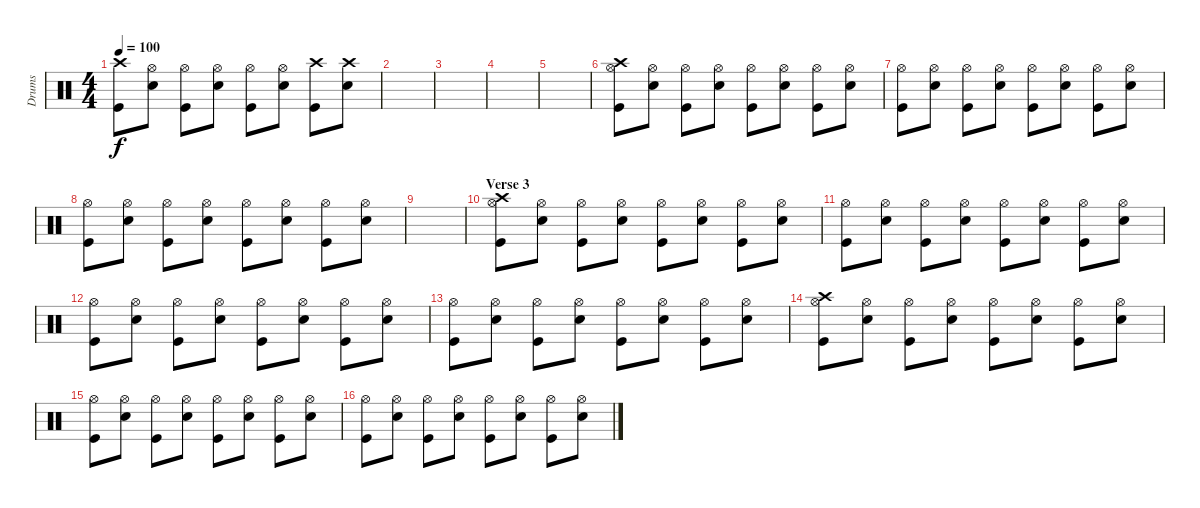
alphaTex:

\track ("Drums" "Drums") {instrument percussion}
\staff {score}
\articulation defaults
\ts (4 4)
\tempo 100
\clef neutral
\ks c
("Crash high (hit)" "Kick (hit)").8{dy f} ("Hi-Hat (open)" "Snare (hit) 2").8 ("Hi-Hat (open)" "Kick (hit)").8 ("Hi-Hat (open)" "Snare (hit) 2").8 ("Hi-Hat (open)" "Kick (hit)").8 ("Hi-Hat (open)" "Snare (hit) 2").8 ("Crash high (hit)" "Kick (hit)").8 ("Crash high (hit)" "Snare (hit) 2").8 |
|
|
|
|
("Hi-Hat (open)" "Crash high (hit)" "Kick (hit)").8 ("Hi-Hat (open)" "Snare (hit) 2").8 ("Hi-Hat (open)" "Kick (hit)").8 ("Hi-Hat (open)" "Snare (hit) 2").8 ("Hi-Hat (open)" "Kick (hit)").8 ("Hi-Hat (open)" "Snare (hit) 2").8 ("Hi-Hat (open)" "Kick (hit)").8 ("Hi-Hat (open)" "Snare (hit) 2").8 |
("Hi-Hat (open)" "Kick (hit)").8 ("Hi-Hat (open)" "Snare (hit) 2").8 ("Hi-Hat (open)" "Kick (hit)").8 ("Hi-Hat (open)" "Snare (hit) 2").8 ("Hi-Hat (open)" "Kick (hit)").8 ("Hi-Hat (open)" "Snare (hit) 2").8 ("Hi-Hat (open)" "Kick (hit)").8 ("Hi-Hat (open)" "Snare (hit) 2").8 |
("Hi-Hat (open)" "Kick (hit)").8 ("Hi-Hat (open)" "Snare (hit) 2").8 ("Hi-Hat (open)" "Kick (hit)").8 ("Hi-Hat (open)" "Snare (hit) 2").8 ("Hi-Hat (open)" "Kick (hit)").8 ("Hi-Hat (open)" "Snare (hit) 2").8 ("Hi-Hat (open)" "Kick (hit)").8 ("Hi-Hat (open)" "Snare (hit) 2").8 |
|
\section ("" "Verse 3")
("Hi-Hat (open)" "Crash high (hit)" "Kick (hit)").8 ("Hi-Hat (open)" "Snare (hit) 2").8 ("Hi-Hat (open)" "Kick (hit)").8 ("Hi-Hat (open)" "Snare (hit) 2").8 ("Hi-Hat (open)" "Kick (hit)").8 ("Hi-Hat (open)" "Snare (hit) 2").8 ("Hi-Hat (open)" "Kick (hit)").8 ("Hi-Hat (open)" "Snare (hit) 2").8 |
("Hi-Hat (open)" "Kick (hit)").8 ("Hi-Hat (open)" "Snare (hit) 2").8 ("Hi-Hat (open)" "Kick (hit)").8 ("Hi-Hat (open)" "Snare (hit) 2").8 ("Hi-Hat (open)" "Kick (hit)").8 ("Hi-Hat (open)" "Snare (hit) 2").8 ("Hi-Hat (open)" "Kick (hit)").8 ("Hi-Hat (open)" "Snare (hit) 2").8 |
("Hi-Hat (open)" "Kick (hit)").8 ("Hi-Hat (open)" "Snare (hit) 2").8 ("Hi-Hat (open)" "Kick (hit)").8 ("Hi-Hat (open)" "Snare (hit) 2").8 ("Hi-Hat (open)" "Kick (hit)").8 ("Hi-Hat (open)" "Snare (hit) 2").8 ("Hi-Hat (open)" "Kick (hit)").8 ("Hi-Hat (open)" "Snare (hit) 2").8 |
("Hi-Hat (open)" "Kick (hit)").8 ("Hi-Hat (open)" "Snare (hit) 2").8 ("Hi-Hat (open)" "Kick (hit)").8 ("Hi-Hat (open)" "Snare (hit) 2").8 ("Hi-Hat (open)" "Kick (hit)").8 ("Hi-Hat (open)" "Snare (hit) 2").8 ("Hi-Hat (open)" "Kick (hit)").8 ("Hi-Hat (open)" "Snare (hit) 2").8 |
("Hi-Hat (open)" "Crash high (hit)" "Kick (hit)").8 ("Hi-Hat (open)" "Snare (hit) 2").8 ("Hi-Hat (open)" "Kick (hit)").8 ("Hi-Hat (open)" "Snare (hit) 2").8 ("Hi-Hat (open)" "Kick (hit)").8 ("Hi-Hat (open)" "Snare (hit) 2").8 ("Hi-Hat (open)" "Kick (hit)").8 ("Hi-Hat (open)" "Snare (hit) 2").8 |
("Hi-Hat (open)" "Kick (hit)").8 ("Hi-Hat (open)" "Snare (hit) 2").8 ("Hi-Hat (open)" "Kick (hit)").8 ("Hi-Hat (open)" "Snare (hit) 2").8 ("Hi-Hat (open)" "Kick (hit)").8 ("Hi-Hat (open)" "Snare (hit) 2").8 ("Hi-Hat (open)" "Kick (hit)").8 ("Hi-Hat (open)" "Snare (hit) 2").8 |
("Hi-Hat (open)" "Kick (hit)").8 ("Hi-Hat (open)" "Snare (hit) 2").8 ("Hi-Hat (open)" "Kick (hit)").8 ("Hi-Hat (open)" "Snare (hit) 2").8 ("Hi-Hat (open)" "Kick (hit)").8 ("Hi-Hat (open)" "Snare (hit) 2").8 ("Hi-Hat (open)" "Kick (hit)").8 ("Hi-Hat (open)" "Snare (hit) 2").8
